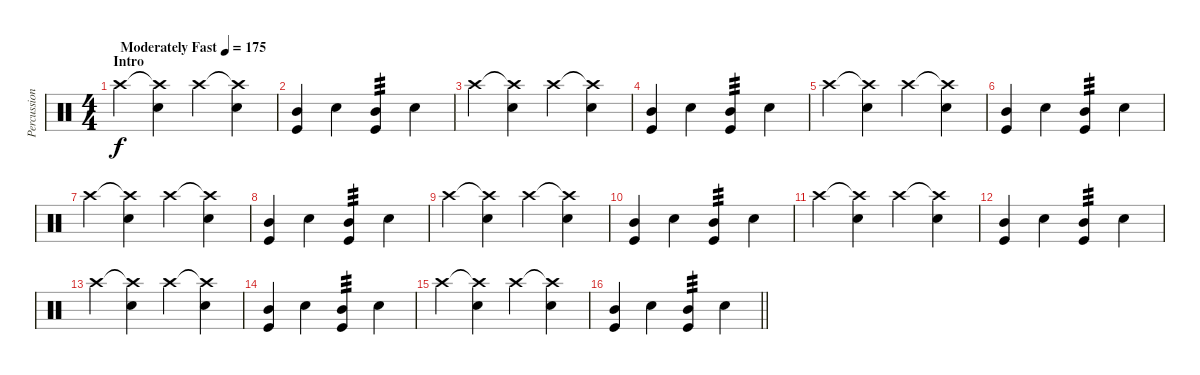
\track ("Percussion" "Percussion") {instrument percussion}
\staff {score}
\articulation defaults
\ts (4 4)
\section ("" "Intro")
\tempo (175 "Moderately Fast")
\clef neutral
\ks c "Crash high (hit)".4{dy f}
("Crash high (hit)"{t} "Snare (hit) 2").4 "Crash high (hit)".4 ("Crash high (hit)"{t} "Snare (hit) 2").4 |
("Mid Tom (hit)" "Kick (hit)").4 "Snare (hit) 2".4 ("Mid Tom (hit)" "Kick (hit)").4{tp 3} "Snare (hit) 2".4 |
"Crash high (hit)".4 ("Crash high (hit)"{t} "Snare (hit) 2").4 "Crash high (hit)".4 ("Crash high (hit)"{t} "Snare (hit) 2").4 |
("Mid Tom (hit)" "Kick (hit)").4 "Snare (hit) 2".4 ("Mid Tom (hit)" "Kick (hit)").4{tp 3} "Snare (hit) 2".4 |
"Crash high (hit)".4 ("Crash high (hit)"{t} "Snare (hit) 2").4 "Crash high (hit)".4 ("Crash high (hit)"{t} "Snare (hit) 2").4 |
("Mid Tom (hit)" "Kick (hit)").4 "Snare (hit) 2".4 ("Mid Tom (hit)" "Kick (hit)").4{tp 3} "Snare (hit) 2".4 |
"Crash high (hit)".4 ("Crash high (hit)"{t} "Snare (hit) 2").4 "Crash high (hit)".4 ("Crash high (hit)"{t} "Snare (hit) 2").4 |
("Mid Tom (hit)" "Kick (hit)").4 "Snare (hit) 2".4 ("Mid Tom (hit)" "Kick (hit)").4{tp 3} "Snare (hit) 2".4 |
"Crash high (hit)".4 ("Crash high (hit)"{t} "Snare (hit) 2").4 "Crash high (hit)".4 ("Crash high (hit)"{t} "Snare (hit) 2").4 |
("Mid Tom (hit)" "Kick (hit)").4 "Snare (hit) 2".4 ("Mid Tom (hit)" "Kick (hit)").4{tp 3} "Snare (hit) 2".4 |
"Crash high (hit)".4 ("Crash high (hit)"{t} "Snare (hit) 2").4 "Crash high (hit)".4 ("Crash high (hit)"{t} "Snare (hit) 2").4 |
("Mid Tom (hit)" "Kick (hit)").4 "Snare (hit) 2".4 ("Mid Tom (hit)" "Kick (hit)").4{tp 3} "Snare (hit) 2".4 |
"Crash high (hit)".4 ("Crash high (hit)"{t} "Snare (hit) 2").4 "Crash high (hit)".4 ("Crash high (hit)"{t} "Snare (hit) 2").4 |
("Mid Tom (hit)" "Kick (hit)").4 "Snare (hit) 2".4 ("Mid Tom (hit)" "Kick (hit)").4{tp 3} "Snare (hit) 2".4 |
"Crash high (hit)".4 ("Crash high (hit)"{t} "Snare (hit) 2").4 "Crash high (hit)".4 ("Crash high (hit)"{t} "Snare (hit) 2").4 |
\barLineRight lightlight
("Mid Tom (hit)" "Kick (hit)").4 "Snare (hit) 2".4 ("Mid Tom (hit)" "Kick (hit)").4{tp 3} "Snare (hit) 2".4
